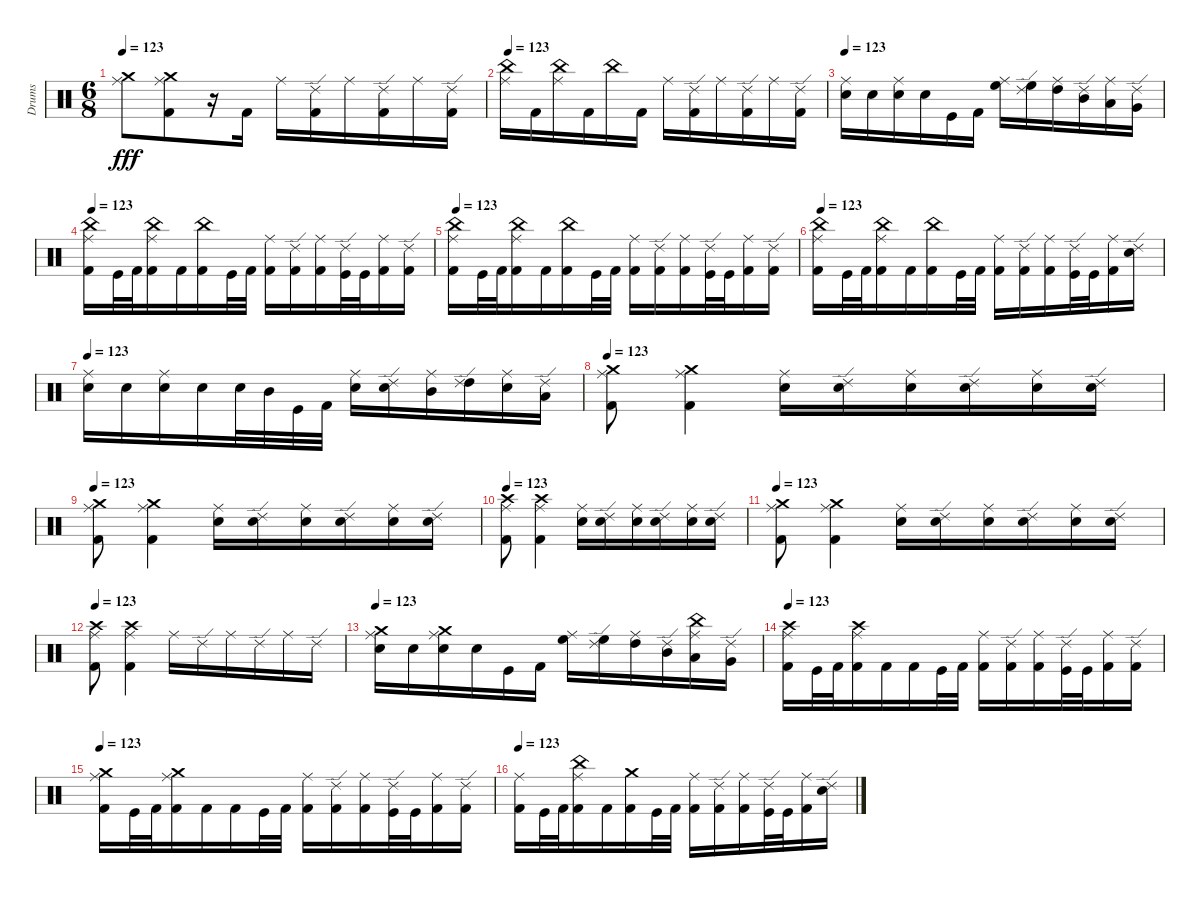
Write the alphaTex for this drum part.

\track ("Drums" "Drums") {instrument percussion}
\staff {score}
\articulation defaults
\ts (6 8)
\tempo 123
\clef neutral
\ks c
("Ride (middle)" "Crash medium (hit)").8{dy fff} ("Kick (hit) 2" "Ride (middle)" "Crash medium (hit)").8 r.16 "Kick (hit) 2".16 "Ride (middle)".16 ("Kick (hit) 2" "Ride (edge) 2").16 "Ride (middle)".16 ("Kick (hit) 2" "Ride (edge) 2").16 "Ride (middle)".16 ("Kick (hit) 2" "Ride (edge) 2").16 |
\tempo 123
("Ride (middle)" "China (hit)").16 "Kick (hit) 2".16 ("Ride (middle)" "China (hit)").16 "Kick (hit) 2".16 "China (hit)".16 "Kick (hit) 2".16 "Ride (middle)".16 ("Kick (hit) 2" "Ride (edge) 2").16 "Ride (middle)".16 ("Kick (hit) 2" "Ride (edge) 2").16 "Ride (middle)".16 ("Kick (hit) 2" "Ride (edge) 2").16 |
\tempo 123
("Snare (hit) 2" "Ride (middle)").16 "Snare (hit) 2".16 ("Snare (hit) 2" "Ride (middle)").16 "Snare (hit) 2".16 "Kick (hit)".16 "Kick (hit) 2".16 ("High Floor Tom (hit)" "Ride (middle)").16 ("High Floor Tom (hit)" "Ride (edge) 2").16 ("High Tom (hit)" "Ride (middle)").16 ("Mid Tom (hit)" "Ride (edge) 2").16 ("Low Tom (hit)" "Ride (middle)").16 ("Very Low Tom (hit)" "Ride (edge) 2").16 |
\tempo 123
("Kick (hit) 2" "Ride (middle)" "China (hit)").16 "Kick (hit)".32 "Kick (hit) 2".32 ("Kick (hit) 2" "Ride (middle)" "China (hit)").16 "Kick (hit) 2".16 ("Kick (hit) 2" "China (hit)").16 "Kick (hit)".32 "Kick (hit) 2".32 ("Kick (hit) 2" "Ride (middle)").16 ("Kick (hit) 2" "Ride (edge) 2").16 ("Kick (hit) 2" "Ride (middle)").16 ("Kick (hit)" "Ride (edge) 2").32 "Kick (hit)".32 ("Kick (hit) 2" "Ride (middle)").16 ("Kick (hit) 2" "Ride (edge) 2").16 |
\tempo 123
("Kick (hit) 2" "Ride (middle)" "China (hit)").16 "Kick (hit)".32 "Kick (hit) 2".32 ("Kick (hit) 2" "Ride (middle)" "China (hit)").16 "Kick (hit) 2".16 ("Kick (hit) 2" "China (hit)").16 "Kick (hit)".32 "Kick (hit) 2".32 ("Kick (hit) 2" "Ride (middle)").16 ("Kick (hit) 2" "Ride (edge) 2").16 ("Kick (hit) 2" "Ride (middle)").16 ("Kick (hit)" "Ride (edge) 2").32 "Kick (hit)".32 ("Kick (hit) 2" "Ride (middle)").16 ("Kick (hit) 2" "Ride (edge) 2").16 |
\tempo 123
("Kick (hit) 2" "Ride (middle)" "China (hit)").16 "Kick (hit)".32 "Kick (hit) 2".32 ("Kick (hit) 2" "Ride (middle)" "China (hit)").16 "Kick (hit) 2".16 ("Kick (hit) 2" "China (hit)").16 "Kick (hit)".32 "Kick (hit) 2".32 ("Kick (hit) 2" "Ride (middle)").16 ("Kick (hit) 2" "Ride (edge) 2").16 ("Kick (hit) 2" "Ride (middle)").16 ("Kick (hit)" "Ride (edge) 2").32 "Kick (hit)".32 ("Kick (hit) 2" "Ride (middle)").16 ("Snare (hit) 2" "Ride (edge) 2").16 |
\tempo 123
("Snare (hit) 2" "Ride (middle)").16 "Snare (hit) 2".16 ("Electric Snare (hit)" "Ride (middle)").16 "Snare (hit) 2".16 "Snare (hit) 2".32 "Mid Tom (hit)".32 "Kick (hit)".32 "Kick (hit) 2".32 ("Snare (hit) 2" "Ride (middle)").16 ("Snare (hit) 2" "Ride (edge) 2").16 ("Mid Tom (hit)" "Ride (middle)").16 ("High Tom (hit)" "Ride (edge) 2").16 ("Snare (hit) 2" "Ride (middle)").16 ("Low Tom (hit)" "Ride (edge) 2").16 |
\tempo 123
("Kick (hit) 2" "Ride (middle)" "Crash medium (hit)").8 ("Kick (hit) 2" "Ride (middle)" "Crash medium (hit)").4 ("Electric Snare (hit)" "Ride (middle)").16 ("Electric Snare (hit)" "Ride (edge) 2").16 ("Electric Snare (hit)" "Ride (middle)").16 ("Electric Snare (hit)" "Ride (edge) 2").16 ("Electric Snare (hit)" "Ride (middle)").16 ("Electric Snare (hit)" "Ride (edge) 2").16 |
\tempo 123
("Kick (hit) 2" "Ride (middle)" "Crash medium (hit)").8 ("Kick (hit) 2" "Ride (middle)" "Crash medium (hit)").4 ("Electric Snare (hit)" "Ride (middle)").16 ("Electric Snare (hit)" "Ride (edge) 2").16 ("Electric Snare (hit)" "Ride (middle)").16 ("Electric Snare (hit)" "Ride (edge) 2").16 ("Electric Snare (hit)" "Ride (middle)").16 ("Electric Snare (hit)" "Ride (edge) 2").16 |
\tempo 123
("Kick (hit) 2" "Ride (middle)" "Crash high (hit)").8 ("Kick (hit) 2" "Ride (middle)" "Crash high (hit)").4{volume 16} ("Electric Snare (hit)" "Ride (middle)").16 ("Electric Snare (hit)" "Ride (edge) 2").16 ("Electric Snare (hit)" "Ride (middle)").16 ("Electric Snare (hit)" "Ride (edge) 2").16 ("Electric Snare (hit)" "Ride (middle)").16 ("Electric Snare (hit)" "Ride (edge) 2").16 |
\tempo 123
("Kick (hit) 2" "Ride (middle)" "Crash medium (hit)").8 ("Kick (hit) 2" "Ride (middle)" "Crash medium (hit)").4 ("Electric Snare (hit)" "Ride (middle)").16 ("Electric Snare (hit)" "Ride (edge) 2").16 ("Electric Snare (hit)" "Ride (middle)").16 ("Electric Snare (hit)" "Ride (edge) 2").16 ("Electric Snare (hit)" "Ride (middle)").16 ("Electric Snare (hit)" "Ride (edge) 2").16 |
\tempo 123
("Kick (hit) 2" "Ride (middle)" "Crash high (hit)").8{volume 16} ("Kick (hit) 2" "Ride (middle)" "Crash high (hit)").4 "Ride (middle)".16 "Ride (edge) 2".16 "Ride (middle)".16 "Ride (edge) 2".16 "Ride (middle)".16 "Ride (edge) 2".16 |
\tempo 123
("Snare (hit) 2" "Ride (middle)" "Crash medium (hit)").16 "Snare (hit) 2".16 ("Snare (hit) 2" "Ride (middle)" "Crash medium (hit)").16 "Snare (hit) 2".16 "Kick (hit)".16 "Kick (hit) 2".16 ("High Floor Tom (hit)" "Ride (middle)").16 ("High Floor Tom (hit)" "Ride (edge) 2").16 ("High Tom (hit)" "Ride (middle)").16 ("Mid Tom (hit)" "Ride (edge) 2").16 ("Low Tom (hit)" "Ride (middle)" "China (hit)").16 ("Very Low Tom (hit)" "Ride (edge) 2").16 |
\tempo 123
("Kick (hit) 2" "Ride (middle)" "Crash high (hit)").16 "Kick (hit)".32 "Kick (hit) 2".32 ("Kick (hit) 2" "Ride (middle)" "Crash high (hit)").16 "Kick (hit) 2".16 "Kick (hit) 2".16 "Kick (hit)".32 "Kick (hit) 2".32 ("Kick (hit) 2" "Ride (middle)").16 ("Kick (hit) 2" "Ride (edge) 2").16 ("Kick (hit) 2" "Ride (middle)").16 ("Kick (hit)" "Ride (edge) 2").32 "Kick (hit)".32 ("Kick (hit) 2" "Ride (middle)").16 ("Kick (hit) 2" "Ride (edge) 2").16 |
\tempo 123
("Kick (hit) 2" "Ride (middle)" "Crash medium (hit)").16 "Kick (hit)".32 "Kick (hit) 2".32 ("Kick (hit) 2" "Ride (middle)" "Crash medium (hit)").16 "Kick (hit) 2".16 "Kick (hit) 2".16 "Kick (hit)".32 "Kick (hit) 2".32 ("Kick (hit) 2" "Ride (middle)").16 ("Kick (hit) 2" "Ride (edge) 2").16 ("Kick (hit) 2" "Ride (middle)").16 ("Kick (hit)" "Ride (edge) 2").32 "Kick (hit)".32 ("Kick (hit) 2" "Ride (middle)").16 ("Kick (hit) 2" "Ride (edge) 2").16 |
\tempo 123
("Kick (hit) 2" "Ride (middle)").16 "Kick (hit)".32 "Kick (hit) 2".32 ("Kick (hit) 2" "Ride (middle)" "China (hit)").16 "Kick (hit) 2".16 ("Kick (hit) 2" "Crash medium (hit)").16 "Kick (hit)".32 "Kick (hit) 2".32 ("Kick (hit) 2" "Ride (middle)").16 ("Kick (hit) 2" "Ride (edge) 2").16 ("Kick (hit) 2" "Ride (middle)").16 ("Kick (hit)" "Ride (edge) 2").32 "Kick (hit)".32 ("Kick (hit) 2" "Ride (middle)").16 ("Snare (hit) 2" "Ride (edge) 2").16
